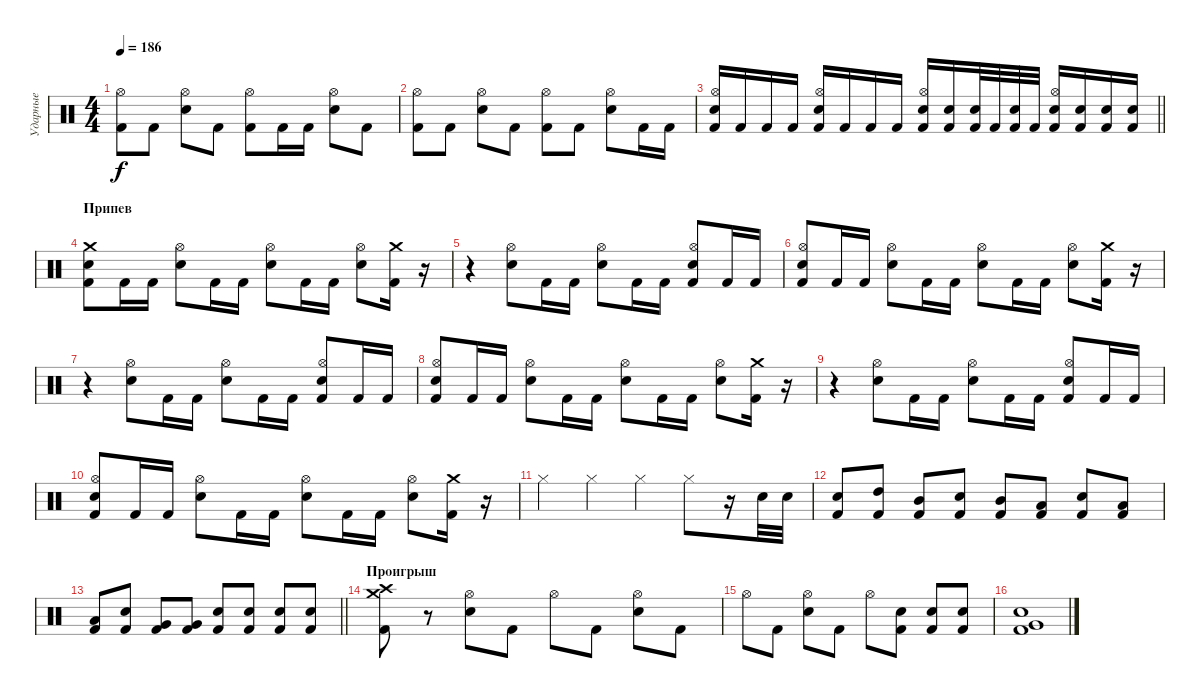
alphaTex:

\track ("Ударные" "Ударные") {instrument percussion}
\staff {score}
\articulation defaults
\ts (4 4)
\tempo 186
\clef neutral
\ks c
("Kick (hit) 2" "Hi-Hat (open)").8{dy f} "Kick (hit) 2".8 ("Snare (hit) 2" "Hi-Hat (open)").8 "Kick (hit) 2".8 ("Kick (hit) 2" "Hi-Hat (open)").8 "Kick (hit) 2".16 "Kick (hit) 2".16 ("Snare (hit) 2" "Hi-Hat (open)").8 "Kick (hit) 2".8 |
("Kick (hit) 2" "Hi-Hat (open)").8 "Kick (hit) 2".8 ("Snare (hit) 2" "Hi-Hat (open)").8 "Kick (hit) 2".8 ("Kick (hit) 2" "Hi-Hat (open)").8 "Kick (hit) 2".8 ("Snare (hit) 2" "Hi-Hat (open)").8 "Kick (hit) 2".16 "Kick (hit) 2".16 |
\barLineRight lightlight
("Kick (hit) 2" "Snare (hit) 2" "Hi-Hat (open)").16 "Kick (hit) 2".16 "Kick (hit) 2".16 "Kick (hit) 2".16 ("Kick (hit) 2" "Snare (hit) 2" "Hi-Hat (open)").16 "Kick (hit) 2".16 "Kick (hit) 2".16 "Kick (hit) 2".16 ("Kick (hit) 2" "Snare (hit) 2" "Hi-Hat (open)").16 ("Kick (hit) 2" "Snare (hit) 2").16 ("Kick (hit) 2" "Snare (hit) 2").32 "Kick (hit) 2".32 ("Kick (hit) 2" "Snare (hit) 2").32 "Kick (hit) 2".32 ("Kick (hit) 2" "Snare (hit) 2" "Hi-Hat (open)").16 ("Kick (hit) 2" "Snare (hit) 2").16 ("Kick (hit) 2" "Snare (hit) 2").16 ("Kick (hit) 2" "Snare (hit) 2").16 |
\section ("" "Припев")
("Kick (hit) 2" "Snare (hit) 2" "Crash medium (hit)").8 "Kick (hit) 2".16 "Kick (hit) 2".16 ("Snare (hit) 2" "Hi-Hat (open)").8 "Kick (hit) 2".16 "Kick (hit) 2".16 ("Snare (hit) 2" "Hi-Hat (open)").8 "Kick (hit) 2".16 "Kick (hit) 2".16 ("Snare (hit) 2" "Hi-Hat (open)").8 ("Kick (hit) 2" "Crash medium (hit)").16 r.16 |
r.4 ("Snare (hit) 2" "Hi-Hat (open)").8 "Kick (hit) 2".16 "Kick (hit) 2".16 ("Snare (hit) 2" "Hi-Hat (open)").8 "Kick (hit) 2".16 "Kick (hit) 2".16 ("Kick (hit) 2" "Snare (hit) 2" "Hi-Hat (open)").8 "Kick (hit) 2".16 "Kick (hit) 2".16 |
("Kick (hit) 2" "Snare (hit) 2" "Hi-Hat (open)").8 "Kick (hit) 2".16 "Kick (hit) 2".16 ("Snare (hit) 2" "Hi-Hat (open)").8 "Kick (hit) 2".16 "Kick (hit) 2".16 ("Snare (hit) 2" "Hi-Hat (open)").8 "Kick (hit) 2".16 "Kick (hit) 2".16 ("Snare (hit) 2" "Hi-Hat (open)").8 ("Kick (hit) 2" "Crash medium (hit)").16 r.16 |
r.4 ("Snare (hit) 2" "Hi-Hat (open)").8 "Kick (hit) 2".16 "Kick (hit) 2".16 ("Snare (hit) 2" "Hi-Hat (open)").8 "Kick (hit) 2".16 "Kick (hit) 2".16 ("Kick (hit) 2" "Snare (hit) 2" "Hi-Hat (open)").8 "Kick (hit) 2".16 "Kick (hit) 2".16 |
("Kick (hit) 2" "Snare (hit) 2" "Hi-Hat (open)").8 "Kick (hit) 2".16 "Kick (hit) 2".16 ("Snare (hit) 2" "Hi-Hat (open)").8 "Kick (hit) 2".16 "Kick (hit) 2".16 ("Snare (hit) 2" "Hi-Hat (open)").8 "Kick (hit) 2".16 "Kick (hit) 2".16 ("Snare (hit) 2" "Hi-Hat (open)").8 ("Kick (hit) 2" "Crash medium (hit)").16 r.16 |
r.4 ("Snare (hit) 2" "Hi-Hat (open)").8 "Kick (hit) 2".16 "Kick (hit) 2".16 ("Snare (hit) 2" "Hi-Hat (open)").8 "Kick (hit) 2".16 "Kick (hit) 2".16 ("Kick (hit) 2" "Snare (hit) 2" "Hi-Hat (open)").8 "Kick (hit) 2".16 "Kick (hit) 2".16 |
("Kick (hit) 2" "Snare (hit) 2" "Hi-Hat (open)").8 "Kick (hit) 2".16 "Kick (hit) 2".16 ("Snare (hit) 2" "Hi-Hat (open)").8 "Kick (hit) 2".16 "Kick (hit) 2".16 ("Snare (hit) 2" "Hi-Hat (open)").8 "Kick (hit) 2".16 "Kick (hit) 2".16 ("Snare (hit) 2" "Hi-Hat (open)").8 ("Kick (hit) 2" "Crash medium (hit)").16 r.16 |
"Hi-Hat (closed)".4 "Hi-Hat (closed)".4 "Hi-Hat (closed)".4 "Hi-Hat (closed)".8 r.16 "Snare (hit) 2".32 "Snare (hit) 2".32 |
("Kick (hit) 2" "Snare (hit) 2").8 ("Kick (hit) 2" "High Tom (hit)").8 ("Kick (hit) 2" "Mid Tom (hit)").8 ("Kick (hit) 2" "Snare (hit) 2").8 ("Kick (hit) 2" "Mid Tom (hit)").8 ("Kick (hit) 2" "Low Tom (hit)").8 ("Kick (hit) 2" "Snare (hit) 2").8 ("Kick (hit) 2" "Low Tom (hit)").8 |
\barLineRight lightlight
("Kick (hit) 2" "Low Tom (hit)").8 ("Kick (hit) 2" "Snare (hit) 2").8 ("Kick (hit) 2" "Very Low Tom (hit)").8 ("Kick (hit) 2" "Very Low Tom (hit)").8 ("Kick (hit) 2" "Snare (hit) 2").8 ("Kick (hit) 2" "Snare (hit) 2").8 ("Kick (hit) 2" "Snare (hit) 2").8 ("Kick (hit) 2" "Snare (hit) 2").8 |
\section ("" "Проигрыш")
("Kick (hit) 2" "Crash high (hit)" "Crash medium (hit)").8 r.8 ("Snare (hit) 2" "Hi-Hat (open)").8 "Kick (hit) 2".8 "Hi-Hat (open)".8 "Kick (hit) 2".8 ("Snare (hit) 2" "Hi-Hat (open)").8 "Kick (hit) 2".8 |
"Hi-Hat (open)".8 "Kick (hit) 2".8 ("Snare (hit) 2" "Hi-Hat (open)").8 "Kick (hit) 2".8 "Hi-Hat (open)".8 ("Kick (hit) 2" "Snare (hit) 2").8 ("Kick (hit) 2" "Snare (hit) 2").8 ("Kick (hit) 2" "Snare (hit) 2").8 |
("Kick (hit) 2" "Snare (hit) 2" "Very Low Tom (hit)").1
